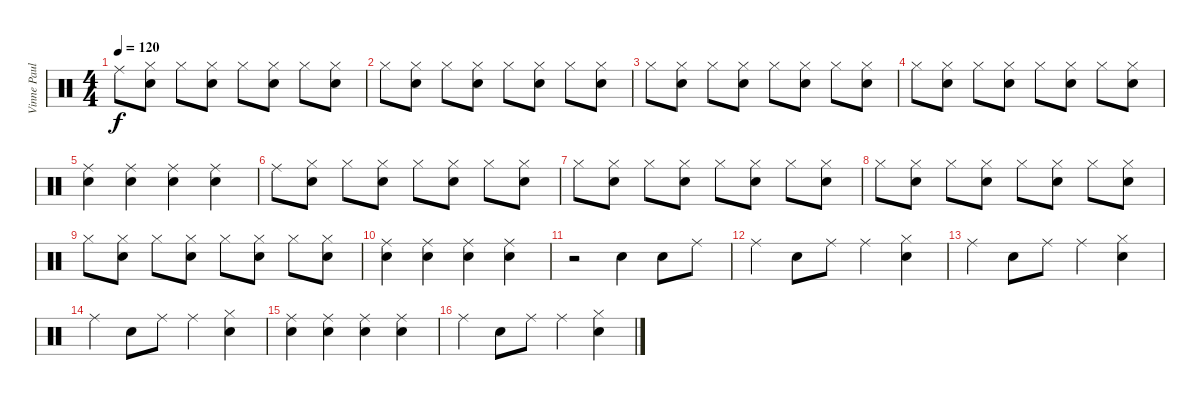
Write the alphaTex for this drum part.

\track ("Vinne Paul cymbals and tom" "Vinne Paul") {instrument percussion}
\staff {score}
\articulation defaults
\ts (4 4)
\tempo 120
\clef neutral
\ks c "Ride (middle)".8{dy f}
("Hi-Hat (closed)" "Electric Snare (hit)").8 "Hi-Hat (closed)".8 ("Hi-Hat (closed)" "Electric Snare (hit)").8 "Hi-Hat (closed)".8 ("Hi-Hat (closed)" "Electric Snare (hit)").8 "Hi-Hat (closed)".8 ("Hi-Hat (closed)" "Electric Snare (hit)").8 |
"Hi-Hat (closed)".8 ("Hi-Hat (closed)" "Electric Snare (hit)").8 "Hi-Hat (closed)".8 ("Hi-Hat (closed)" "Electric Snare (hit)").8 "Hi-Hat (closed)".8 ("Hi-Hat (closed)" "Electric Snare (hit)").8 "Hi-Hat (closed)".8 ("Hi-Hat (closed)" "Electric Snare (hit)").8 |
"Hi-Hat (closed)".8 ("Hi-Hat (closed)" "Electric Snare (hit)").8 "Hi-Hat (closed)".8 ("Hi-Hat (closed)" "Electric Snare (hit)").8 "Hi-Hat (closed)".8 ("Hi-Hat (closed)" "Electric Snare (hit)").8 "Hi-Hat (closed)".8 ("Hi-Hat (closed)" "Electric Snare (hit)").8 |
"Hi-Hat (closed)".8 ("Hi-Hat (closed)" "Electric Snare (hit)").8 "Hi-Hat (closed)".8 ("Hi-Hat (closed)" "Electric Snare (hit)").8 "Hi-Hat (closed)".8 ("Hi-Hat (closed)" "Electric Snare (hit)").8 "Hi-Hat (closed)".8 ("Hi-Hat (closed)" "Electric Snare (hit)").8 |
("Ride (middle)" "Electric Snare (hit)").4 ("Ride (middle)" "Electric Snare (hit)").4 ("Ride (middle)" "Electric Snare (hit)").4 ("Ride (middle)" "Electric Snare (hit)").4 |
"Ride (middle)".8 ("Hi-Hat (closed)" "Electric Snare (hit)").8 "Hi-Hat (closed)".8 ("Hi-Hat (closed)" "Electric Snare (hit)").8 "Hi-Hat (closed)".8 ("Hi-Hat (closed)" "Electric Snare (hit)").8 "Hi-Hat (closed)".8 ("Hi-Hat (closed)" "Electric Snare (hit)").8 |
"Hi-Hat (closed)".8 ("Hi-Hat (closed)" "Electric Snare (hit)").8 "Hi-Hat (closed)".8 ("Hi-Hat (closed)" "Electric Snare (hit)").8 "Hi-Hat (closed)".8 ("Hi-Hat (closed)" "Electric Snare (hit)").8 "Hi-Hat (closed)".8 ("Hi-Hat (closed)" "Electric Snare (hit)").8 |
"Hi-Hat (closed)".8 ("Hi-Hat (closed)" "Electric Snare (hit)").8 "Hi-Hat (closed)".8 ("Hi-Hat (closed)" "Electric Snare (hit)").8 "Hi-Hat (closed)".8 ("Hi-Hat (closed)" "Electric Snare (hit)").8 "Hi-Hat (closed)".8 ("Hi-Hat (closed)" "Electric Snare (hit)").8 |
"Hi-Hat (closed)".8 ("Hi-Hat (closed)" "Electric Snare (hit)").8 "Hi-Hat (closed)".8 ("Hi-Hat (closed)" "Electric Snare (hit)").8 "Hi-Hat (closed)".8 ("Hi-Hat (closed)" "Electric Snare (hit)").8 "Hi-Hat (closed)".8 ("Hi-Hat (closed)" "Electric Snare (hit)").8 |
("Ride (middle)" "Electric Snare (hit)").4 ("Ride (middle)" "Electric Snare (hit)").4 ("Ride (middle)" "Electric Snare (hit)").4 ("Ride (middle)" "Electric Snare (hit)").4 |
r.2 "Electric Snare (hit)".4 "Electric Snare (hit)".8 "Ride (middle)".8 |
"Ride (middle)".4 "Electric Snare (hit)".8 "Ride (middle)".8 "Ride (middle)".4 ("Hi-Hat (closed)" "Electric Snare (hit)").4 |
"Ride (middle)".4 "Electric Snare (hit)".8 "Ride (middle)".8 "Ride (middle)".4 ("Hi-Hat (closed)" "Electric Snare (hit)").4 |
"Ride (middle)".4 "Electric Snare (hit)".8 "Ride (middle)".8 "Ride (middle)".4 ("Hi-Hat (closed)" "Electric Snare (hit)").4 |
("Ride (middle)" "Electric Snare (hit)").4 ("Ride (middle)" "Electric Snare (hit)").4 ("Ride (middle)" "Electric Snare (hit)").4 ("Ride (middle)" "Electric Snare (hit)").4 |
"Ride (middle)".4 "Electric Snare (hit)".8 "Ride (middle)".8 "Ride (middle)".4 ("Hi-Hat (closed)" "Electric Snare (hit)").4
